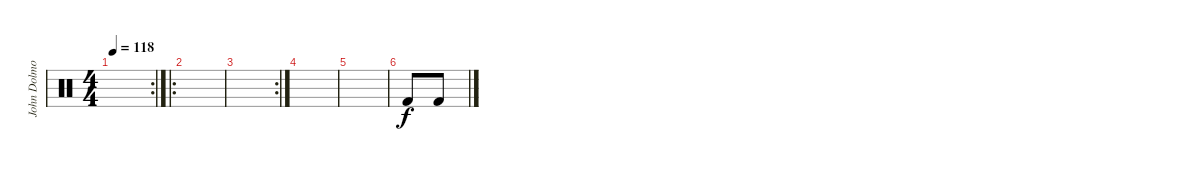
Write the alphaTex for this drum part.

\track ("John Dolmoyan" "John Dolmo") {instrument percussion}
\staff {score}
\articulation defaults
\rc 2
\ts (4 4)
\tempo 118
\clef neutral
\ks c
|
\ro
|
\rc 2
|
|
|
"Kick (hit) 2".8 "Kick (hit) 2".8
